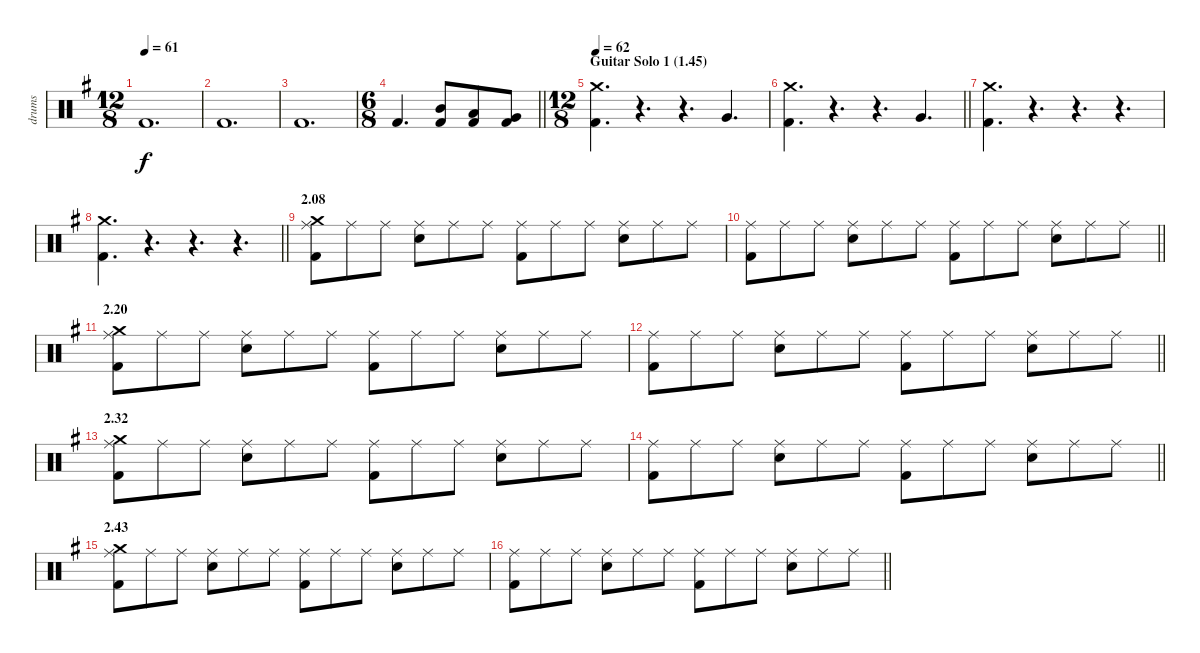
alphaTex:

\track ("drums" "drums") {instrument percussion}
\staff {score}
\articulation defaults
\ts (12 8)
\tempo 61
\clef neutral
\ks g "Kick (hit) 2".1{d dy f}
|
"Kick (hit) 2".1{d} |
"Kick (hit) 2".1{d} |
\ts (6 8)
\barLineRight lightlight "Kick (hit) 2".4{d}
("Mid Tom (hit)" "Kick (hit) 2").8 ("Low Tom (hit)" "Kick (hit) 2").8 ("Very Low Tom (hit)" "Kick (hit) 2").8 |
\ts (12 8)
\section ("" "Guitar Solo 1 (1.45)")
\tempo 62
("Crash medium (hit)" "Kick (hit) 2").4{d} r.4{d} r.4{d} "Very Low Tom (hit)".4{d} |
\barLineRight lightlight
("Crash medium (hit)" "Kick (hit) 2").4{d} r.4{d} r.4{d} "Very Low Tom (hit)".4{d} |
("Crash medium (hit)" "Kick (hit) 2").4{d} r.4{d} r.4{d} r.4{d} |
\barLineRight lightlight
("Crash medium (hit)" "Kick (hit) 2").4{d} r.4{d} r.4{d} r.4{d} |
\section ("" "2.08")
("Ride (middle)" "Crash medium (hit)" "Kick (hit) 2").8 "Ride (middle)".8 "Ride (middle)".8 ("Ride (middle)" "Electric Snare (hit)").8 "Ride (middle)".8 "Ride (middle)".8 ("Ride (middle)" "Kick (hit) 2").8 "Ride (middle)".8 "Ride (middle)".8 ("Ride (middle)" "Electric Snare (hit)").8 "Ride (middle)".8 "Ride (middle)".8 |
\barLineRight lightlight
("Ride (middle)" "Kick (hit) 2").8 "Ride (middle)".8 "Ride (middle)".8 ("Ride (middle)" "Electric Snare (hit)").8 "Ride (middle)".8 "Ride (middle)".8 ("Ride (middle)" "Kick (hit) 2").8 "Ride (middle)".8 "Ride (middle)".8 ("Ride (middle)" "Electric Snare (hit)").8 "Ride (middle)".8 "Ride (middle)".8 |
\section ("" "2.20")
("Ride (middle)" "Crash medium (hit)" "Kick (hit) 2").8 "Ride (middle)".8 "Ride (middle)".8 ("Ride (middle)" "Electric Snare (hit)").8 "Ride (middle)".8 "Ride (middle)".8 ("Ride (middle)" "Kick (hit) 2").8 "Ride (middle)".8 "Ride (middle)".8 ("Ride (middle)" "Electric Snare (hit)").8 "Ride (middle)".8 "Ride (middle)".8 |
\barLineRight lightlight
("Ride (middle)" "Kick (hit) 2").8 "Ride (middle)".8 "Ride (middle)".8 ("Ride (middle)" "Electric Snare (hit)").8 "Ride (middle)".8 "Ride (middle)".8 ("Ride (middle)" "Kick (hit) 2").8 "Ride (middle)".8 "Ride (middle)".8 ("Ride (middle)" "Electric Snare (hit)").8 "Ride (middle)".8 "Ride (middle)".8 |
\section ("" "2.32")
("Ride (middle)" "Crash medium (hit)" "Kick (hit) 2").8 "Ride (middle)".8 "Ride (middle)".8 ("Ride (middle)" "Electric Snare (hit)").8 "Ride (middle)".8 "Ride (middle)".8 ("Ride (middle)" "Kick (hit) 2").8 "Ride (middle)".8 "Ride (middle)".8 ("Ride (middle)" "Electric Snare (hit)").8 "Ride (middle)".8 "Ride (middle)".8 |
\barLineRight lightlight
("Ride (middle)" "Kick (hit) 2").8 "Ride (middle)".8 "Ride (middle)".8 ("Ride (middle)" "Electric Snare (hit)").8 "Ride (middle)".8 "Ride (middle)".8 ("Ride (middle)" "Kick (hit) 2").8 "Ride (middle)".8 "Ride (middle)".8 ("Ride (middle)" "Electric Snare (hit)").8 "Ride (middle)".8 "Ride (middle)".8 |
\section ("" "2.43")
("Ride (middle)" "Crash medium (hit)" "Kick (hit) 2").8 "Ride (middle)".8 "Ride (middle)".8 ("Ride (middle)" "Electric Snare (hit)").8 "Ride (middle)".8 "Ride (middle)".8 ("Ride (middle)" "Kick (hit) 2").8 "Ride (middle)".8 "Ride (middle)".8 ("Ride (middle)" "Electric Snare (hit)").8 "Ride (middle)".8 "Ride (middle)".8 |
\barLineRight lightlight
("Ride (middle)" "Kick (hit) 2").8 "Ride (middle)".8 "Ride (middle)".8 ("Ride (middle)" "Electric Snare (hit)").8 "Ride (middle)".8 "Ride (middle)".8 ("Ride (middle)" "Kick (hit) 2").8 "Ride (middle)".8 "Ride (middle)".8 ("Ride (middle)" "Electric Snare (hit)").8 "Ride (middle)".8 "Ride (middle)".8
